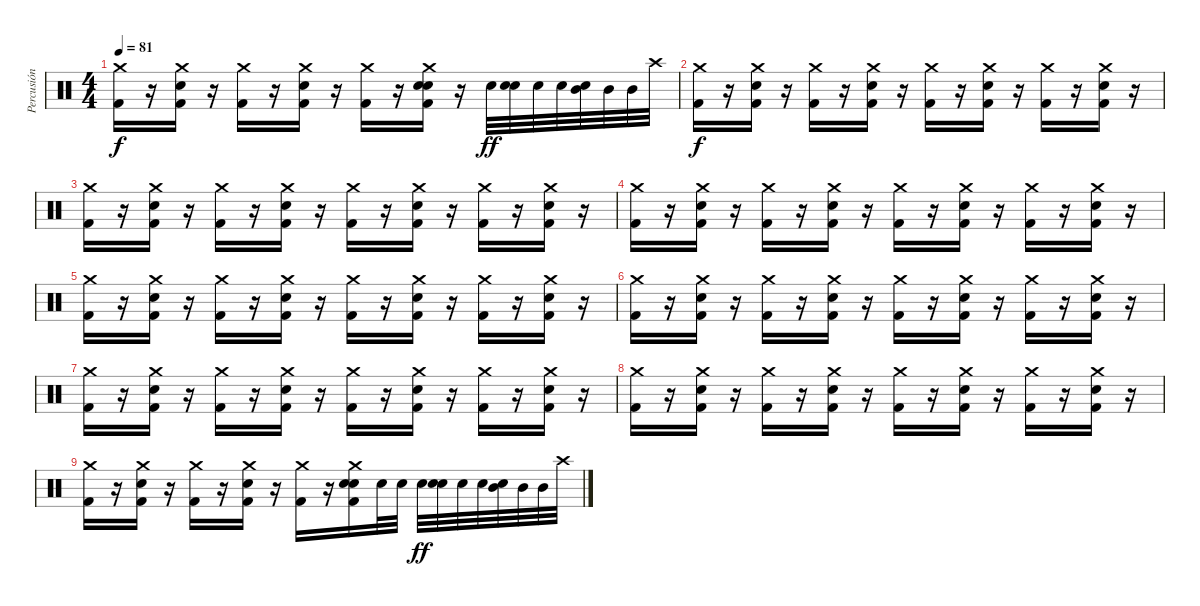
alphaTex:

\track ("Percusión" "Percusión") {instrument percussion}
\staff {score}
\articulation defaults
\ts (4 4)
\tempo 81
\clef neutral
\ks c
("Kick (hit) 2" "Crash medium (hit)").16{dy f} r.16 ("Kick (hit) 2" "Electric Snare (hit)" "Crash medium (hit)").16 r.16 ("Kick (hit) 2" "Crash medium (hit)").16 r.16 ("Kick (hit) 2" "Electric Snare (hit)" "Crash medium (hit)").16 r.16 ("Kick (hit) 2" "Crash medium (hit)").16 r.16 ("Kick (hit) 2" "Electric Snare (hit)" "Snare (hit)" "Crash medium (hit)").16 r.16 "Electric Snare (hit)".32{dy ff} ("Snare (hit) 2" "Electric Snare (hit)").32 "Electric Snare (hit)".32 "Electric Snare (hit)".32 ("Snare (hit) 2" "Mid Tom (hit)").32 "Mid Tom (hit)".32 "Mid Tom (hit)".32 "Crash high (hit)".32 |
("Kick (hit) 2" "Crash medium (hit)").16{dy f} r.16 ("Kick (hit) 2" "Electric Snare (hit)" "Crash medium (hit)").16 r.16 ("Kick (hit) 2" "Crash medium (hit)").16 r.16 ("Kick (hit) 2" "Electric Snare (hit)" "Crash medium (hit)").16 r.16 ("Kick (hit) 2" "Crash medium (hit)").16 r.16 ("Kick (hit) 2" "Electric Snare (hit)" "Crash medium (hit)").16 r.16 ("Kick (hit) 2" "Crash medium (hit)").16 r.16 ("Kick (hit) 2" "Electric Snare (hit)" "Crash medium (hit)").16 r.16 |
("Kick (hit) 2" "Crash medium (hit)").16 r.16 ("Kick (hit) 2" "Electric Snare (hit)" "Crash medium (hit)").16 r.16 ("Kick (hit) 2" "Crash medium (hit)").16 r.16 ("Kick (hit) 2" "Electric Snare (hit)" "Crash medium (hit)").16 r.16 ("Kick (hit) 2" "Crash medium (hit)").16 r.16 ("Kick (hit) 2" "Electric Snare (hit)" "Crash medium (hit)").16 r.16 ("Kick (hit) 2" "Crash medium (hit)").16 r.16 ("Kick (hit) 2" "Electric Snare (hit)" "Crash medium (hit)").16 r.16 |
("Kick (hit) 2" "Crash medium (hit)").16 r.16 ("Kick (hit) 2" "Electric Snare (hit)" "Crash medium (hit)").16 r.16 ("Kick (hit) 2" "Crash medium (hit)").16 r.16 ("Kick (hit) 2" "Electric Snare (hit)" "Crash medium (hit)").16 r.16 ("Kick (hit) 2" "Crash medium (hit)").16 r.16 ("Kick (hit) 2" "Electric Snare (hit)" "Crash medium (hit)").16 r.16 ("Kick (hit) 2" "Crash medium (hit)").16 r.16 ("Kick (hit) 2" "Electric Snare (hit)" "Crash medium (hit)").16 r.16 |
("Kick (hit) 2" "Crash medium (hit)").16 r.16 ("Kick (hit) 2" "Electric Snare (hit)" "Crash medium (hit)").16 r.16 ("Kick (hit) 2" "Crash medium (hit)").16 r.16 ("Kick (hit) 2" "Electric Snare (hit)" "Crash medium (hit)").16 r.16 ("Kick (hit) 2" "Crash medium (hit)").16 r.16 ("Kick (hit) 2" "Electric Snare (hit)" "Crash medium (hit)").16 r.16 ("Kick (hit) 2" "Crash medium (hit)").16 r.16 ("Kick (hit) 2" "Electric Snare (hit)" "Crash medium (hit)").16 r.16 |
("Kick (hit) 2" "Crash medium (hit)").16 r.16 ("Kick (hit) 2" "Electric Snare (hit)" "Crash medium (hit)").16 r.16 ("Kick (hit) 2" "Crash medium (hit)").16 r.16 ("Kick (hit) 2" "Electric Snare (hit)" "Crash medium (hit)").16 r.16 ("Kick (hit) 2" "Crash medium (hit)").16 r.16 ("Kick (hit) 2" "Electric Snare (hit)" "Crash medium (hit)").16 r.16 ("Kick (hit) 2" "Crash medium (hit)").16 r.16 ("Kick (hit) 2" "Electric Snare (hit)" "Crash medium (hit)").16 r.16 |
("Kick (hit) 2" "Crash medium (hit)").16 r.16 ("Kick (hit) 2" "Electric Snare (hit)" "Crash medium (hit)").16 r.16 ("Kick (hit) 2" "Crash medium (hit)").16 r.16 ("Kick (hit) 2" "Electric Snare (hit)" "Crash medium (hit)").16 r.16 ("Kick (hit) 2" "Crash medium (hit)").16 r.16 ("Kick (hit) 2" "Electric Snare (hit)" "Crash medium (hit)").16 r.16 ("Kick (hit) 2" "Crash medium (hit)").16 r.16 ("Kick (hit) 2" "Electric Snare (hit)" "Crash medium (hit)").16 r.16 |
("Kick (hit) 2" "Crash medium (hit)").16 r.16 ("Kick (hit) 2" "Electric Snare (hit)" "Crash medium (hit)").16 r.16 ("Kick (hit) 2" "Crash medium (hit)").16 r.16 ("Kick (hit) 2" "Electric Snare (hit)" "Crash medium (hit)").16 r.16 ("Kick (hit) 2" "Crash medium (hit)").16 r.16 ("Kick (hit) 2" "Electric Snare (hit)" "Crash medium (hit)").16 r.16 ("Kick (hit) 2" "Crash medium (hit)").16 r.16 ("Kick (hit) 2" "Electric Snare (hit)" "Crash medium (hit)").16 r.16 |
("Kick (hit) 2" "Crash medium (hit)").16 r.16 ("Kick (hit) 2" "Electric Snare (hit)" "Crash medium (hit)").16 r.16 ("Kick (hit) 2" "Crash medium (hit)").16 r.16 ("Kick (hit) 2" "Electric Snare (hit)" "Crash medium (hit)").16 r.16 ("Kick (hit) 2" "Crash medium (hit)").16 r.16 ("Kick (hit) 2" "Electric Snare (hit)" "Snare (hit)" "Crash medium (hit)").16 "Electric Snare (hit)".32 "Electric Snare (hit)".32 "Electric Snare (hit)".32{dy ff} ("Snare (hit) 2" "Electric Snare (hit)").32 "Electric Snare (hit)".32 "Electric Snare (hit)".32 ("Snare (hit) 2" "Mid Tom (hit)").32 "Mid Tom (hit)".32 "Mid Tom (hit)".32 "Crash high (hit)".32
